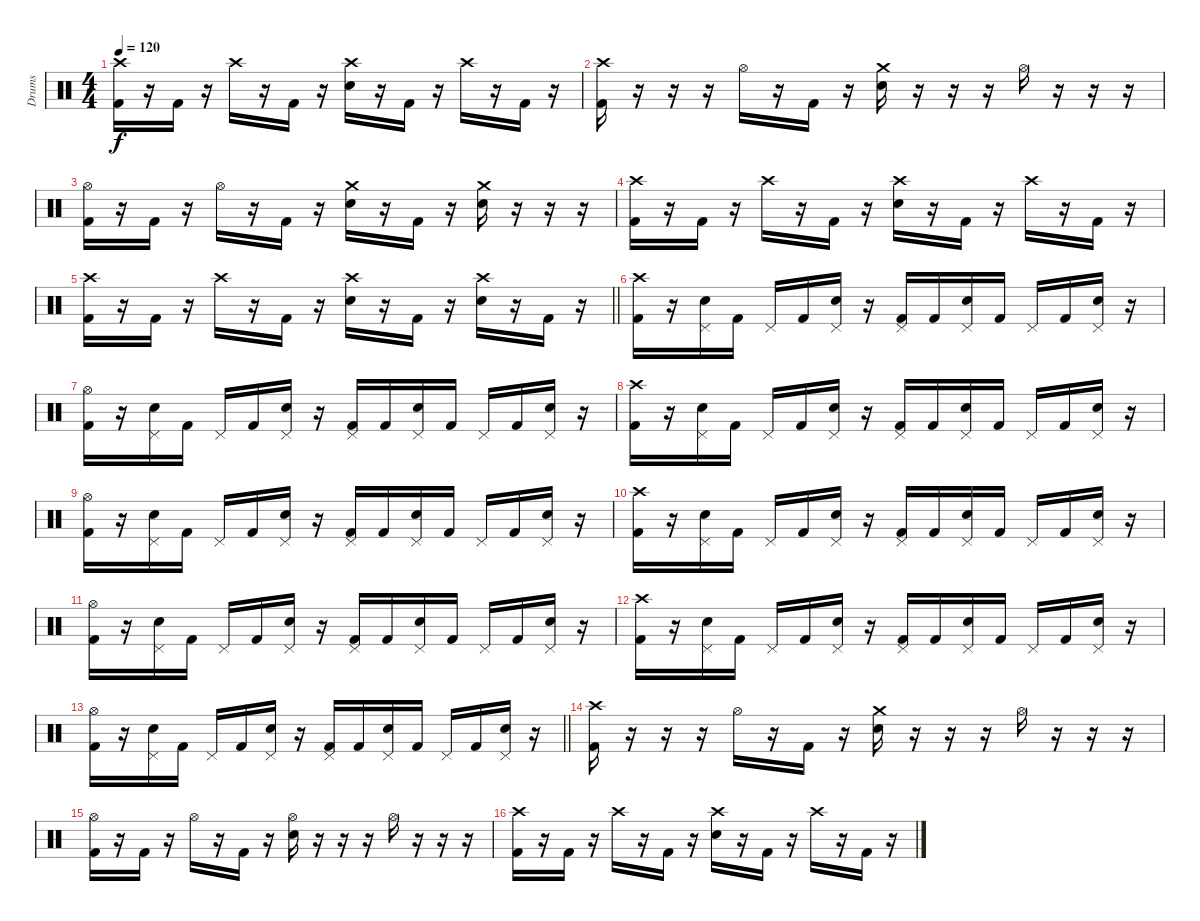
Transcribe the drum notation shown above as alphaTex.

\track ("Drums" "Drums") {instrument percussion}
\staff
\articulation defaults
\ts (4 4)
\tempo 120
\clef neutral
\ks c
("Crash high (hit)" "Kick (hit) 2").16{dy f} r.16 "Kick (hit) 2".16 r.16 "Crash high (hit)".16 r.16 "Kick (hit) 2".16 r.16 ("Crash high (hit)" "Snare (hit) 2").16 r.16 "Kick (hit) 2".16 r.16 "Crash high (hit)".16 r.16 "Kick (hit) 2".16 r.16 |
("Crash high (hit)" "Kick (hit) 2").16 r.16 r.16 r.16 "Hi-Hat (open)".16 r.16 "Kick (hit) 2".16 r.16 ("Crash medium (hit)" "Snare (hit) 2").16 r.16 r.16 r.16 "Hi-Hat (open)".16 r.16 r.16 r.16 |
("Hi-Hat (open)" "Kick (hit) 2").16 r.16 "Kick (hit) 2".16 r.16 "Hi-Hat (open)".16 r.16 "Kick (hit) 2".16 r.16 ("Crash medium (hit)" "Snare (hit) 2").16 r.16 "Kick (hit) 2".16 r.16 ("Crash medium (hit)" "Snare (hit) 2").16 r.16 r.16 r.16 |
("Crash high (hit)" "Kick (hit) 2").16 r.16 "Kick (hit) 2".16 r.16 "Crash high (hit)".16 r.16 "Kick (hit) 2".16 r.16 ("Crash high (hit)" "Snare (hit) 2").16 r.16 "Kick (hit) 2".16 r.16 "Crash high (hit)".16 r.16 "Kick (hit) 2".16 r.16 |
\barLineRight lightlight
("Crash high (hit)" "Kick (hit) 2").16 r.16 "Kick (hit) 2".16 r.16 "Crash high (hit)".16 r.16 "Kick (hit) 2".16 r.16 ("Crash high (hit)" "Snare (hit) 2").16 r.16 "Kick (hit) 2".16 r.16 ("Crash high (hit)" "Snare (hit) 2").16 r.16 "Kick (hit) 2".16 r.16 |
\section ("" "")
("Crash high (hit)" "Kick (hit) 2").16 r.16 ("Pedal Hi-Hat (hit)" "Snare (hit) 2").16 "Kick (hit) 2".16 "Pedal Hi-Hat (hit)".16 "Kick (hit) 2".16 ("Pedal Hi-Hat (hit)" "Snare (hit) 2").16 r.16 ("Pedal Hi-Hat (hit)" "Kick (hit) 2").16 "Kick (hit) 2".16 ("Pedal Hi-Hat (hit)" "Snare (hit) 2").16 "Kick (hit) 2".16 "Pedal Hi-Hat (hit)".16 "Kick (hit) 2".16 ("Pedal Hi-Hat (hit)" "Snare (hit) 2").16 r.16 |
("Hi-Hat (open)" "Kick (hit) 2").16 r.16 ("Pedal Hi-Hat (hit)" "Snare (hit) 2").16 "Kick (hit) 2".16 "Pedal Hi-Hat (hit)".16 "Kick (hit) 2".16 ("Pedal Hi-Hat (hit)" "Snare (hit) 2").16 r.16 ("Pedal Hi-Hat (hit)" "Kick (hit) 2").16 "Kick (hit) 2".16 ("Pedal Hi-Hat (hit)" "Snare (hit) 2").16 "Kick (hit) 2".16 "Pedal Hi-Hat (hit)".16 "Kick (hit) 2".16 ("Pedal Hi-Hat (hit)" "Snare (hit) 2").16 r.16 |
("Crash high (hit)" "Kick (hit) 2").16 r.16 ("Pedal Hi-Hat (hit)" "Snare (hit) 2").16 "Kick (hit) 2".16 "Pedal Hi-Hat (hit)".16 "Kick (hit) 2".16 ("Pedal Hi-Hat (hit)" "Snare (hit) 2").16 r.16 ("Pedal Hi-Hat (hit)" "Kick (hit) 2").16 "Kick (hit) 2".16 ("Pedal Hi-Hat (hit)" "Snare (hit) 2").16 "Kick (hit) 2".16 "Pedal Hi-Hat (hit)".16 "Kick (hit) 2".16 ("Pedal Hi-Hat (hit)" "Snare (hit) 2").16 r.16 |
("Hi-Hat (open)" "Kick (hit) 2").16 r.16 ("Pedal Hi-Hat (hit)" "Snare (hit) 2").16 "Kick (hit) 2".16 "Pedal Hi-Hat (hit)".16 "Kick (hit) 2".16 ("Pedal Hi-Hat (hit)" "Snare (hit) 2").16 r.16 ("Pedal Hi-Hat (hit)" "Kick (hit) 2").16 "Kick (hit) 2".16 ("Pedal Hi-Hat (hit)" "Snare (hit) 2").16 "Kick (hit) 2".16 "Pedal Hi-Hat (hit)".16 "Kick (hit) 2".16 ("Pedal Hi-Hat (hit)" "Snare (hit) 2").16 r.16 |
("Crash high (hit)" "Kick (hit) 2").16 r.16 ("Pedal Hi-Hat (hit)" "Snare (hit) 2").16 "Kick (hit) 2".16 "Pedal Hi-Hat (hit)".16 "Kick (hit) 2".16 ("Pedal Hi-Hat (hit)" "Snare (hit) 2").16 r.16 ("Pedal Hi-Hat (hit)" "Kick (hit) 2").16 "Kick (hit) 2".16 ("Pedal Hi-Hat (hit)" "Snare (hit) 2").16 "Kick (hit) 2".16 "Pedal Hi-Hat (hit)".16 "Kick (hit) 2".16 ("Pedal Hi-Hat (hit)" "Snare (hit) 2").16 r.16 |
("Hi-Hat (open)" "Kick (hit) 2").16 r.16 ("Pedal Hi-Hat (hit)" "Snare (hit) 2").16 "Kick (hit) 2".16 "Pedal Hi-Hat (hit)".16 "Kick (hit) 2".16 ("Pedal Hi-Hat (hit)" "Snare (hit) 2").16 r.16 ("Pedal Hi-Hat (hit)" "Kick (hit) 2").16 "Kick (hit) 2".16 ("Pedal Hi-Hat (hit)" "Snare (hit) 2").16 "Kick (hit) 2".16 "Pedal Hi-Hat (hit)".16 "Kick (hit) 2".16 ("Pedal Hi-Hat (hit)" "Snare (hit) 2").16 r.16 |
("Crash high (hit)" "Kick (hit) 2").16 r.16 ("Pedal Hi-Hat (hit)" "Snare (hit) 2").16 "Kick (hit) 2".16 "Pedal Hi-Hat (hit)".16 "Kick (hit) 2".16 ("Pedal Hi-Hat (hit)" "Snare (hit) 2").16 r.16 ("Pedal Hi-Hat (hit)" "Kick (hit) 2").16 "Kick (hit) 2".16 ("Pedal Hi-Hat (hit)" "Snare (hit) 2").16 "Kick (hit) 2".16 "Pedal Hi-Hat (hit)".16 "Kick (hit) 2".16 ("Pedal Hi-Hat (hit)" "Snare (hit) 2").16 r.16 |
\barLineRight lightlight
("Hi-Hat (open)" "Kick (hit) 2").16 r.16 ("Pedal Hi-Hat (hit)" "Snare (hit) 2").16 "Kick (hit) 2".16 "Pedal Hi-Hat (hit)".16 "Kick (hit) 2".16 ("Pedal Hi-Hat (hit)" "Snare (hit) 2").16 r.16 ("Pedal Hi-Hat (hit)" "Kick (hit) 2").16 "Kick (hit) 2".16 ("Pedal Hi-Hat (hit)" "Snare (hit) 2").16 "Kick (hit) 2".16 "Pedal Hi-Hat (hit)".16 "Kick (hit) 2".16 ("Pedal Hi-Hat (hit)" "Snare (hit) 2").16 r.16 |
("Crash high (hit)" "Kick (hit) 2").16 r.16 r.16 r.16 "Hi-Hat (open)".16 r.16 "Kick (hit) 2".16 r.16 ("Crash medium (hit)" "Snare (hit) 2").16 r.16 r.16 r.16 "Hi-Hat (open)".16 r.16 r.16 r.16 |
("Hi-Hat (open)" "Kick (hit) 2").16 r.16 "Kick (hit) 2".16 r.16 "Hi-Hat (open)".16 r.16 "Kick (hit) 2".16 r.16 ("Hi-Hat (open)" "Snare (hit) 2").16 r.16 r.16 r.16 "Hi-Hat (open)".16 r.16 r.16 r.16 |
("Crash high (hit)" "Kick (hit) 2").16 r.16 "Kick (hit) 2".16 r.16 "Crash high (hit)".16 r.16 "Kick (hit) 2".16 r.16 ("Crash high (hit)" "Snare (hit) 2").16 r.16 "Kick (hit) 2".16 r.16 "Crash high (hit)".16 r.16 "Kick (hit) 2".16 r.16
